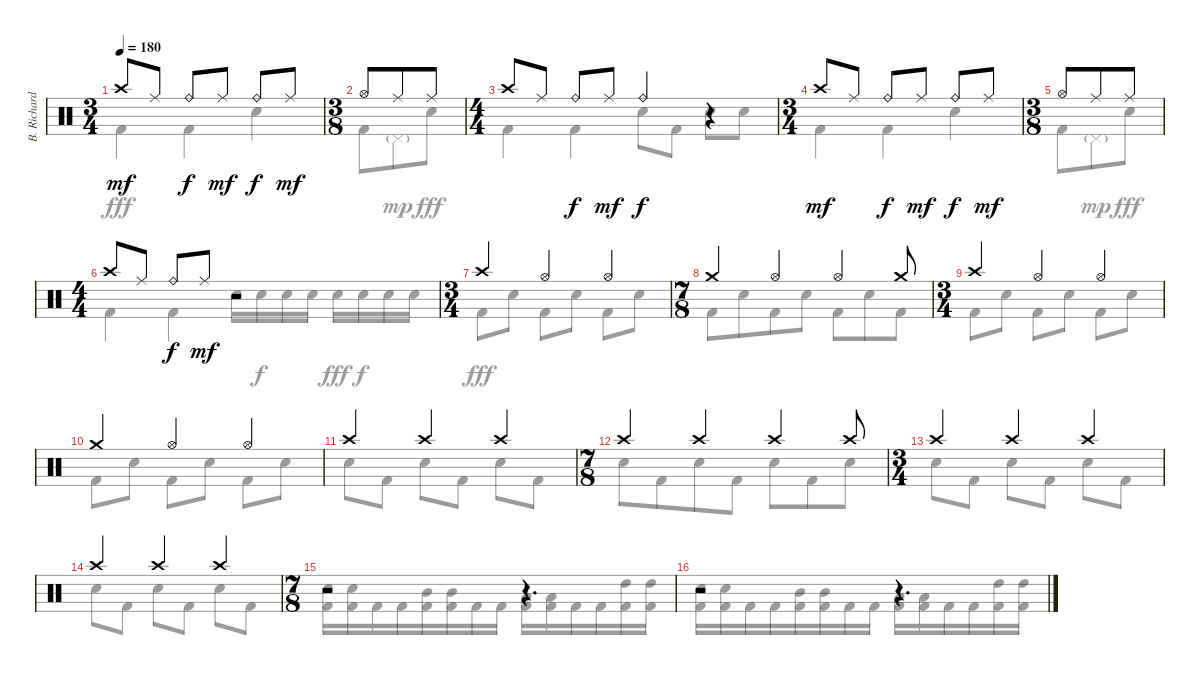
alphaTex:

\track ("B. Richardson Drums" "B. Richard") {instrument percussion}
\staff {score}
\articulation defaults
\voice
\ts (3 4)
\tempo 180
\clef neutral
\ks c "Crash high (hit)".8{dy mf} "Ride (middle)".8 "Ride (bell)".8{dy f} "Ride (middle)".8{dy mf} "Ride (bell)".8{dy f} "Ride (middle)".8{dy mf}
|
\ts (3 8)
"Hi-Hat (open)".8 "Ride (middle)".8 "Ride (middle)".8 |
\ts (4 4)
"Crash high (hit)".8 "Ride (middle)".8 "Ride (bell)".8{dy f} "Ride (middle)".8{dy mf} "Ride (bell)".4{dy f} r.4 |
\ts (3 4)
"Crash high (hit)".8{dy mf} "Ride (middle)".8 "Ride (bell)".8{dy f} "Ride (middle)".8{dy mf} "Ride (bell)".8{dy f} "Ride (middle)".8{dy mf} |
\ts (3 8)
"Hi-Hat (open)".8 "Ride (middle)".8 "Ride (middle)".8 |
\ts (4 4)
"Crash high (hit)".8 "Ride (middle)".8 "Ride (bell)".8{dy f} "Ride (middle)".8{dy mf} r.2 |
\ts (3 4)
"Crash high (hit)".4 "Hi-Hat (open)".4 "Hi-Hat (open)".4 |
\ts (7 8)
"Crash medium (hit)".4 "Hi-Hat (open)".4 "Hi-Hat (open)".4 "Crash medium (hit)".8 |
\ts (3 4)
"Crash high (hit)".4 "Hi-Hat (open)".4 "Hi-Hat (open)".4 |
"Crash medium (hit)".4 "Hi-Hat (open)".4 "Hi-Hat (open)".4 |
"Crash high (hit)".4 "Crash high (hit)".4 "Crash high (hit)".4 |
\ts (7 8)
"Crash high (hit)".4 "Crash high (hit)".4 "Crash high (hit)".4 "Crash high (hit)".8 |
\ts (3 4)
"Crash high (hit)".4 "Crash high (hit)".4 "Crash high (hit)".4 |
"Crash high (hit)".4 "Crash high (hit)".4 "Crash high (hit)".4 |
\ts (7 8)
r.2 r.4{d} |
r.2 r.4{d}
\voice
\clef neutral
\ottava regular
\simile none
\ks c "Kick (hit) 2".4{dy fff} "Kick (hit) 2".4 "Electric Snare (hit)".4
|
"Kick (hit) 2".8 "Pedal Hi-Hat (hit)"{g}.8{dy mp} "Electric Snare (hit)".8{dy fff} |
"Kick (hit) 2".4 "Kick (hit) 2".4 "Electric Snare (hit)".8 "Kick (hit) 2".8 "Electric Snare (hit)".8 "Electric Snare (hit)".8 |
"Kick (hit) 2".4 "Kick (hit) 2".4 "Electric Snare (hit)".4 |
"Kick (hit) 2".8 "Pedal Hi-Hat (hit)"{g}.8{dy mp} "Electric Snare (hit)".8{dy fff} |
"Kick (hit) 2".4 "Kick (hit) 2".4 "Electric Snare (hit)".16 "Electric Snare (hit)".16{dy f} "Electric Snare (hit)".16 "Electric Snare (hit)".16 "Electric Snare (hit)".16{dy fff} "Electric Snare (hit)".16{dy f} "Electric Snare (hit)".16 "Electric Snare (hit)".16 |
"Kick (hit) 2".8{dy fff} "Electric Snare (hit)".8 "Kick (hit) 2".8 "Electric Snare (hit)".8 "Kick (hit) 2".8 "Electric Snare (hit)".8 |
"Kick (hit) 2".8 "Electric Snare (hit)".8 "Kick (hit) 2".8 "Electric Snare (hit)".8 "Kick (hit) 2".8 "Electric Snare (hit)".8 "Kick (hit) 2".8 |
"Kick (hit) 2".8 "Electric Snare (hit)".8 "Kick (hit) 2".8 "Electric Snare (hit)".8 "Kick (hit) 2".8 "Electric Snare (hit)".8 |
"Kick (hit) 2".8 "Electric Snare (hit)".8 "Kick (hit) 2".8 "Electric Snare (hit)".8 "Kick (hit) 2".8 "Electric Snare (hit)".8 |
"Electric Snare (hit)".8 "Kick (hit) 2".8 "Electric Snare (hit)".8 "Kick (hit) 2".8 "Electric Snare (hit)".8 "Kick (hit) 2".8 |
"Electric Snare (hit)".8 "Kick (hit) 2".8 "Electric Snare (hit)".8 "Kick (hit) 2".8 "Electric Snare (hit)".8 "Kick (hit) 2".8 "Electric Snare (hit)".8 |
"Electric Snare (hit)".8 "Kick (hit) 2".8 "Electric Snare (hit)".8 "Kick (hit) 2".8 "Electric Snare (hit)".8 "Kick (hit) 2".8 |
"Electric Snare (hit)".8 "Kick (hit) 2".8 "Electric Snare (hit)".8 "Kick (hit) 2".8 "Electric Snare (hit)".8 "Kick (hit) 2".8 |
("Electric Snare (hit)" "Kick (hit) 2").16 ("Electric Snare (hit)" "Kick (hit) 2").16 "Kick (hit) 2".16 "Kick (hit) 2".16 ("Mid Tom (hit)" "Kick (hit) 2").16 ("Mid Tom (hit)" "Kick (hit) 2").16 "Kick (hit) 2".16 "Kick (hit) 2".16 ("Low Tom (hit)" "Kick (hit) 2").16 ("Low Tom (hit)" "Kick (hit) 2").16 "Kick (hit) 2".16 "Kick (hit) 2".16 ("High Tom (hit)" "Kick (hit) 2").16 ("High Tom (hit)" "Kick (hit) 2").16 |
("Electric Snare (hit)" "Kick (hit) 2").16 ("Electric Snare (hit)" "Kick (hit) 2").16 "Kick (hit) 2".16 "Kick (hit) 2".16 ("Mid Tom (hit)" "Kick (hit) 2").16 ("Mid Tom (hit)" "Kick (hit) 2").16 "Kick (hit) 2".16 "Kick (hit) 2".16 ("Low Tom (hit)" "Kick (hit) 2").16 ("Low Tom (hit)" "Kick (hit) 2").16 "Kick (hit) 2".16 "Kick (hit) 2".16 ("High Tom (hit)" "Kick (hit) 2").16 ("High Tom (hit)" "Kick (hit) 2").16
